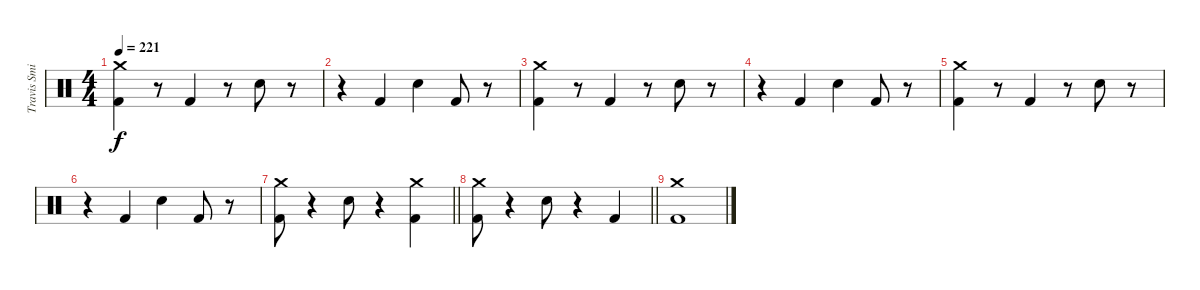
\track ("Travis Smith" "Travis Smi") {instrument percussion}
\staff {score}
\articulation defaults
\ts (4 4)
\tempo 221
\clef neutral
\ks c
("Crash medium (hit)" "Kick (hit) 2").4{dy f} r.8 "Kick (hit) 2".4 r.8 "Electric Snare (hit)".8 r.8 |
r.4 "Kick (hit) 2".4 "Electric Snare (hit)".4 "Kick (hit) 2".8 r.8 |
("Crash medium (hit)" "Kick (hit) 2").4 r.8 "Kick (hit) 2".4 r.8 "Electric Snare (hit)".8 r.8 |
r.4 "Kick (hit) 2".4 "Electric Snare (hit)".4 "Kick (hit) 2".8 r.8 |
("Crash medium (hit)" "Kick (hit) 2").4 r.8 "Kick (hit) 2".4 r.8 "Electric Snare (hit)".8 r.8 |
r.4 "Kick (hit) 2".4 "Electric Snare (hit)".4 "Kick (hit) 2".8 r.8 |
\barLineRight lightlight
("Crash medium (hit)" "Kick (hit) 2").8 r.4 "Electric Snare (hit)".8 r.4 ("Crash medium (hit)" "Kick (hit) 2").4 |
\barLineRight lightlight
("Crash medium (hit)" "Kick (hit) 2").8 r.4 "Electric Snare (hit)".8 r.4 "Kick (hit) 2".4 |
("Crash medium (hit)" "Kick (hit) 2").1
